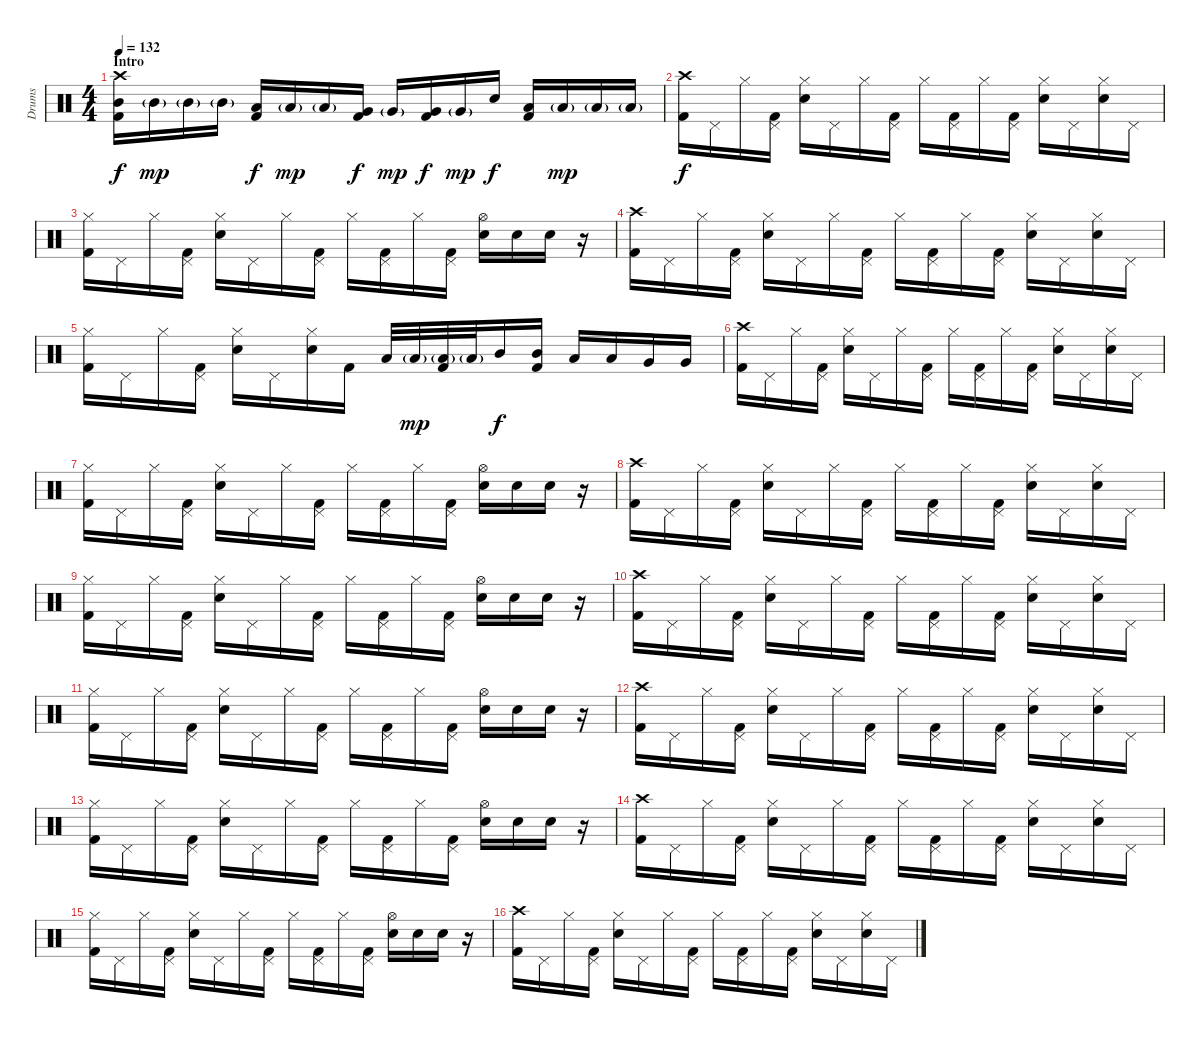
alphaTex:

\track ("Drums" "Drums") {instrument percussion}
\staff {score}
\articulation defaults
\ts (4 4)
\section ("" "Intro")
\tempo 132
\clef neutral
\ks c
("Crash high (hit)" "Mid Tom (hit)" "Kick (hit) 2").16{dy f} "Mid Tom (hit)"{g}.16{dy mp} "Mid Tom (hit)"{g}.16 "Mid Tom (hit)"{g}.16 ("Low Tom (hit)" "Kick (hit) 2").16{dy f} "Low Tom (hit)"{g}.16{dy mp} "Low Tom (hit)"{g}.16 ("Very Low Tom (hit)" "Kick (hit) 2").16{dy f} "Very Low Tom (hit)"{g}.16{dy mp} ("Very Low Tom (hit)" "Kick (hit) 2").16{dy f} "Very Low Tom (hit)"{g}.16{dy mp} "Electric Snare (hit)".16{dy f} ("Low Floor Tom (hit)" "Kick (hit) 2").16 "Low Floor Tom (hit)"{g}.16{dy mp} "Low Floor Tom (hit)"{g}.16 "Low Floor Tom (hit)"{g}.16 |
("Crash high (hit)" "Kick (hit) 2").16{dy f} "Pedal Hi-Hat (hit)".16 "Hi-Hat (closed)".16 ("Pedal Hi-Hat (hit)" "Kick (hit) 2").16 ("Hi-Hat (closed)" "Electric Snare (hit)").16 "Pedal Hi-Hat (hit)".16 "Hi-Hat (closed)".16 ("Pedal Hi-Hat (hit)" "Kick (hit) 2").16 "Hi-Hat (closed)".16 ("Pedal Hi-Hat (hit)" "Kick (hit) 2").16 "Hi-Hat (closed)".16 ("Pedal Hi-Hat (hit)" "Kick (hit) 2").16 ("Hi-Hat (closed)" "Electric Snare (hit)").16 "Pedal Hi-Hat (hit)".16 ("Hi-Hat (closed)" "Electric Snare (hit)").16 "Pedal Hi-Hat (hit)".16 |
("Hi-Hat (closed)" "Kick (hit) 2").16 "Pedal Hi-Hat (hit)".16 "Hi-Hat (closed)".16 ("Pedal Hi-Hat (hit)" "Kick (hit) 2").16 ("Hi-Hat (closed)" "Electric Snare (hit)").16 "Pedal Hi-Hat (hit)".16 "Hi-Hat (closed)".16 ("Pedal Hi-Hat (hit)" "Kick (hit) 2").16 "Hi-Hat (closed)".16 ("Pedal Hi-Hat (hit)" "Kick (hit) 2").16 "Hi-Hat (closed)".16 ("Pedal Hi-Hat (hit)" "Kick (hit) 2").16 ("Hi-Hat (open)" "Electric Snare (hit)").16 "Electric Snare (hit)".16 "Electric Snare (hit)".16 r.16 |
("Crash high (hit)" "Kick (hit) 2").16 "Pedal Hi-Hat (hit)".16 "Hi-Hat (closed)".16 ("Pedal Hi-Hat (hit)" "Kick (hit) 2").16 ("Hi-Hat (closed)" "Electric Snare (hit)").16 "Pedal Hi-Hat (hit)".16 "Hi-Hat (closed)".16 ("Pedal Hi-Hat (hit)" "Kick (hit) 2").16 "Hi-Hat (closed)".16 ("Pedal Hi-Hat (hit)" "Kick (hit) 2").16 "Hi-Hat (closed)".16 ("Pedal Hi-Hat (hit)" "Kick (hit) 2").16 ("Hi-Hat (closed)" "Electric Snare (hit)").16 "Pedal Hi-Hat (hit)".16 ("Hi-Hat (closed)" "Electric Snare (hit)").16 "Pedal Hi-Hat (hit)".16 |
("Hi-Hat (closed)" "Kick (hit) 2").16 "Pedal Hi-Hat (hit)".16 "Hi-Hat (closed)".16 ("Pedal Hi-Hat (hit)" "Kick (hit) 2").16 ("Hi-Hat (closed)" "Electric Snare (hit)").16 "Pedal Hi-Hat (hit)".16 ("Hi-Hat (closed)" "Electric Snare (hit)").16 "Kick (hit) 2".16 "Low Tom (hit)".32 "Low Tom (hit)"{g}.32{dy mp} ("Low Tom (hit)"{g} "Kick (hit) 2").32 "Low Tom (hit)"{g}.32 "Mid Tom (hit)".16{dy f} ("Mid Tom (hit)" "Kick (hit) 2").16 "Low Tom (hit)".16 "Low Tom (hit)".16 "Very Low Tom (hit)".16 "Very Low Tom (hit)".16 |
("Crash high (hit)" "Kick (hit) 2").16 "Pedal Hi-Hat (hit)".16 "Hi-Hat (closed)".16 ("Pedal Hi-Hat (hit)" "Kick (hit) 2").16 ("Hi-Hat (closed)" "Electric Snare (hit)").16 "Pedal Hi-Hat (hit)".16 "Hi-Hat (closed)".16 ("Pedal Hi-Hat (hit)" "Kick (hit) 2").16 "Hi-Hat (closed)".16 ("Pedal Hi-Hat (hit)" "Kick (hit) 2").16 "Hi-Hat (closed)".16 ("Pedal Hi-Hat (hit)" "Kick (hit) 2").16 ("Hi-Hat (closed)" "Electric Snare (hit)").16 "Pedal Hi-Hat (hit)".16 ("Hi-Hat (closed)" "Electric Snare (hit)").16 "Pedal Hi-Hat (hit)".16 |
("Hi-Hat (closed)" "Kick (hit) 2").16 "Pedal Hi-Hat (hit)".16 "Hi-Hat (closed)".16 ("Pedal Hi-Hat (hit)" "Kick (hit) 2").16 ("Hi-Hat (closed)" "Electric Snare (hit)").16 "Pedal Hi-Hat (hit)".16 "Hi-Hat (closed)".16 ("Pedal Hi-Hat (hit)" "Kick (hit) 2").16 "Hi-Hat (closed)".16 ("Pedal Hi-Hat (hit)" "Kick (hit) 2").16 "Hi-Hat (closed)".16 ("Pedal Hi-Hat (hit)" "Kick (hit) 2").16 ("Hi-Hat (open)" "Electric Snare (hit)").16 "Electric Snare (hit)".16 "Electric Snare (hit)".16 r.16 |
("Crash high (hit)" "Kick (hit) 2").16 "Pedal Hi-Hat (hit)".16 "Hi-Hat (closed)".16 ("Pedal Hi-Hat (hit)" "Kick (hit) 2").16 ("Hi-Hat (closed)" "Electric Snare (hit)").16 "Pedal Hi-Hat (hit)".16 "Hi-Hat (closed)".16 ("Pedal Hi-Hat (hit)" "Kick (hit) 2").16 "Hi-Hat (closed)".16 ("Pedal Hi-Hat (hit)" "Kick (hit) 2").16 "Hi-Hat (closed)".16 ("Pedal Hi-Hat (hit)" "Kick (hit) 2").16 ("Hi-Hat (closed)" "Electric Snare (hit)").16 "Pedal Hi-Hat (hit)".16 ("Hi-Hat (closed)" "Electric Snare (hit)").16 "Pedal Hi-Hat (hit)".16 |
("Hi-Hat (closed)" "Kick (hit) 2").16 "Pedal Hi-Hat (hit)".16 "Hi-Hat (closed)".16 ("Pedal Hi-Hat (hit)" "Kick (hit) 2").16 ("Hi-Hat (closed)" "Electric Snare (hit)").16 "Pedal Hi-Hat (hit)".16 "Hi-Hat (closed)".16 ("Pedal Hi-Hat (hit)" "Kick (hit) 2").16 "Hi-Hat (closed)".16 ("Pedal Hi-Hat (hit)" "Kick (hit) 2").16 "Hi-Hat (closed)".16 ("Pedal Hi-Hat (hit)" "Kick (hit) 2").16 ("Hi-Hat (open)" "Electric Snare (hit)").16 "Electric Snare (hit)".16 "Electric Snare (hit)".16 r.16 |
("Crash high (hit)" "Kick (hit) 2").16 "Pedal Hi-Hat (hit)".16 "Hi-Hat (closed)".16 ("Pedal Hi-Hat (hit)" "Kick (hit) 2").16 ("Hi-Hat (closed)" "Electric Snare (hit)").16 "Pedal Hi-Hat (hit)".16 "Hi-Hat (closed)".16 ("Pedal Hi-Hat (hit)" "Kick (hit) 2").16 "Hi-Hat (closed)".16 ("Pedal Hi-Hat (hit)" "Kick (hit) 2").16 "Hi-Hat (closed)".16 ("Pedal Hi-Hat (hit)" "Kick (hit) 2").16 ("Hi-Hat (closed)" "Electric Snare (hit)").16 "Pedal Hi-Hat (hit)".16 ("Hi-Hat (closed)" "Electric Snare (hit)").16 "Pedal Hi-Hat (hit)".16 |
("Hi-Hat (closed)" "Kick (hit) 2").16 "Pedal Hi-Hat (hit)".16 "Hi-Hat (closed)".16 ("Pedal Hi-Hat (hit)" "Kick (hit) 2").16 ("Hi-Hat (closed)" "Electric Snare (hit)").16 "Pedal Hi-Hat (hit)".16 "Hi-Hat (closed)".16 ("Pedal Hi-Hat (hit)" "Kick (hit) 2").16 "Hi-Hat (closed)".16 ("Pedal Hi-Hat (hit)" "Kick (hit) 2").16 "Hi-Hat (closed)".16 ("Pedal Hi-Hat (hit)" "Kick (hit) 2").16 ("Hi-Hat (open)" "Electric Snare (hit)").16 "Electric Snare (hit)".16 "Electric Snare (hit)".16 r.16 |
("Crash high (hit)" "Kick (hit) 2").16 "Pedal Hi-Hat (hit)".16 "Hi-Hat (closed)".16 ("Pedal Hi-Hat (hit)" "Kick (hit) 2").16 ("Hi-Hat (closed)" "Electric Snare (hit)").16 "Pedal Hi-Hat (hit)".16 "Hi-Hat (closed)".16 ("Pedal Hi-Hat (hit)" "Kick (hit) 2").16 "Hi-Hat (closed)".16 ("Pedal Hi-Hat (hit)" "Kick (hit) 2").16 "Hi-Hat (closed)".16 ("Pedal Hi-Hat (hit)" "Kick (hit) 2").16 ("Hi-Hat (closed)" "Electric Snare (hit)").16 "Pedal Hi-Hat (hit)".16 ("Hi-Hat (closed)" "Electric Snare (hit)").16 "Pedal Hi-Hat (hit)".16 |
("Hi-Hat (closed)" "Kick (hit) 2").16 "Pedal Hi-Hat (hit)".16 "Hi-Hat (closed)".16 ("Pedal Hi-Hat (hit)" "Kick (hit) 2").16 ("Hi-Hat (closed)" "Electric Snare (hit)").16 "Pedal Hi-Hat (hit)".16 "Hi-Hat (closed)".16 ("Pedal Hi-Hat (hit)" "Kick (hit) 2").16 "Hi-Hat (closed)".16 ("Pedal Hi-Hat (hit)" "Kick (hit) 2").16 "Hi-Hat (closed)".16 ("Pedal Hi-Hat (hit)" "Kick (hit) 2").16 ("Hi-Hat (open)" "Electric Snare (hit)").16 "Electric Snare (hit)".16 "Electric Snare (hit)".16 r.16 |
("Crash high (hit)" "Kick (hit) 2").16 "Pedal Hi-Hat (hit)".16 "Hi-Hat (closed)".16 ("Pedal Hi-Hat (hit)" "Kick (hit) 2").16 ("Hi-Hat (closed)" "Electric Snare (hit)").16 "Pedal Hi-Hat (hit)".16 "Hi-Hat (closed)".16 ("Pedal Hi-Hat (hit)" "Kick (hit) 2").16 "Hi-Hat (closed)".16 ("Pedal Hi-Hat (hit)" "Kick (hit) 2").16 "Hi-Hat (closed)".16 ("Pedal Hi-Hat (hit)" "Kick (hit) 2").16 ("Hi-Hat (closed)" "Electric Snare (hit)").16 "Pedal Hi-Hat (hit)".16 ("Hi-Hat (closed)" "Electric Snare (hit)").16 "Pedal Hi-Hat (hit)".16 |
("Hi-Hat (closed)" "Kick (hit) 2").16 "Pedal Hi-Hat (hit)".16 "Hi-Hat (closed)".16 ("Pedal Hi-Hat (hit)" "Kick (hit) 2").16 ("Hi-Hat (closed)" "Electric Snare (hit)").16 "Pedal Hi-Hat (hit)".16 "Hi-Hat (closed)".16 ("Pedal Hi-Hat (hit)" "Kick (hit) 2").16 "Hi-Hat (closed)".16 ("Pedal Hi-Hat (hit)" "Kick (hit) 2").16 "Hi-Hat (closed)".16 ("Pedal Hi-Hat (hit)" "Kick (hit) 2").16 ("Hi-Hat (open)" "Electric Snare (hit)").16 "Electric Snare (hit)".16 "Electric Snare (hit)".16 r.16 |
("Crash high (hit)" "Kick (hit) 2").16 "Pedal Hi-Hat (hit)".16 "Hi-Hat (closed)".16 ("Pedal Hi-Hat (hit)" "Kick (hit) 2").16 ("Hi-Hat (closed)" "Electric Snare (hit)").16 "Pedal Hi-Hat (hit)".16 "Hi-Hat (closed)".16 ("Pedal Hi-Hat (hit)" "Kick (hit) 2").16 "Hi-Hat (closed)".16 ("Pedal Hi-Hat (hit)" "Kick (hit) 2").16 "Hi-Hat (closed)".16 ("Pedal Hi-Hat (hit)" "Kick (hit) 2").16 ("Hi-Hat (closed)" "Electric Snare (hit)").16 "Pedal Hi-Hat (hit)".16 ("Hi-Hat (closed)" "Electric Snare (hit)").16 "Pedal Hi-Hat (hit)".16
